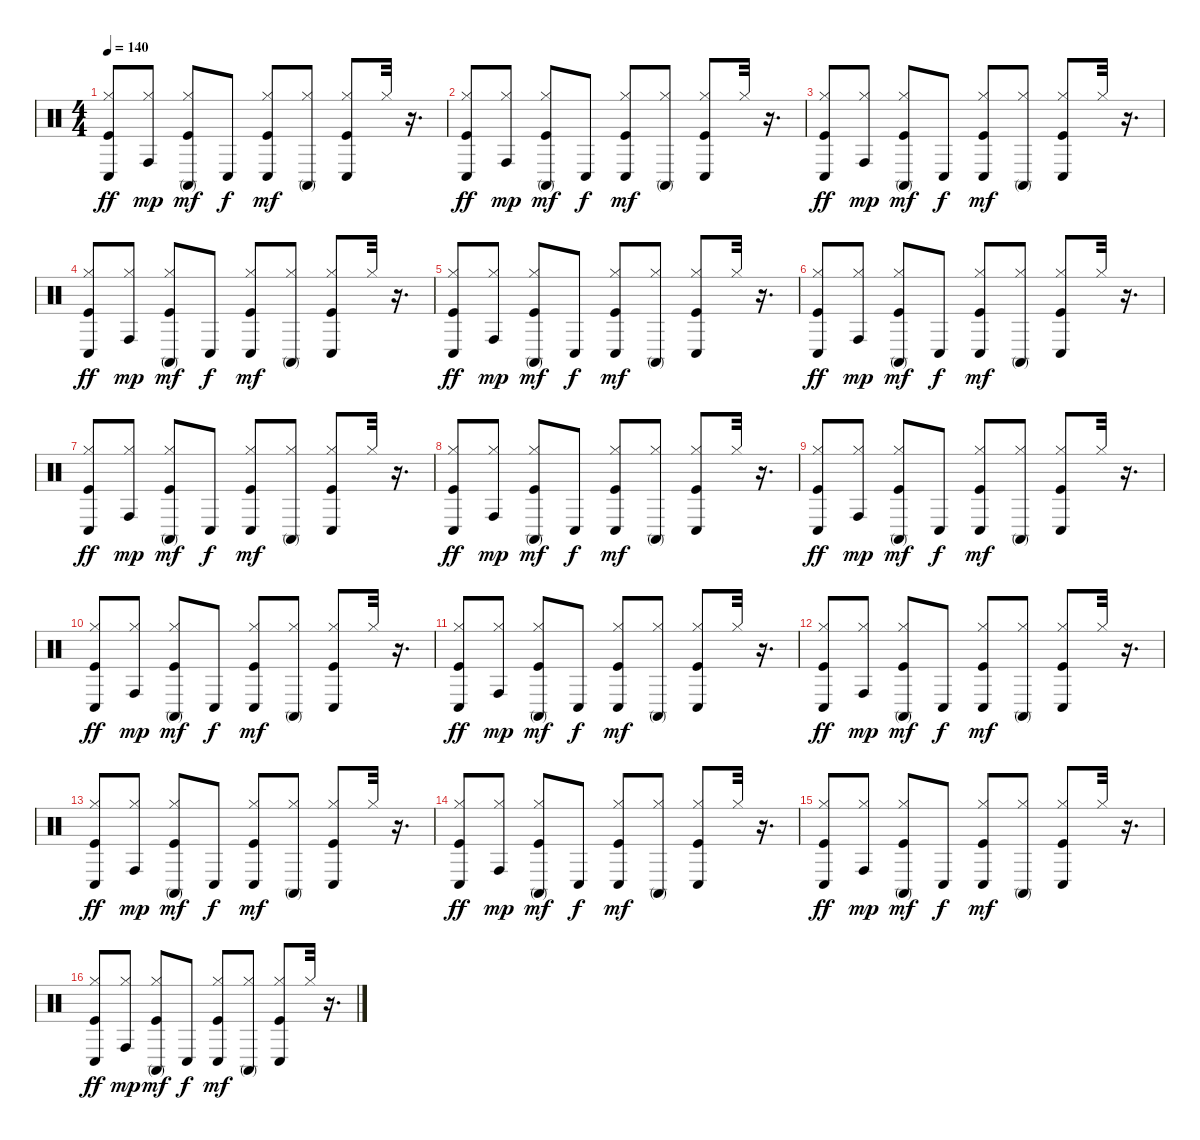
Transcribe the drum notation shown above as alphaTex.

\track "" {instrument percussion}
\staff {score}
\articulation defaults
\ts (4 4)
\tempo 140
\clef neutral
\ks c
("Kick (hit)" "Hi-Hat (closed)" "Conga low (hit)").8{dy ff} ("Hi-Hat (closed)" "Conga high (hit)").8{dy mp} ("Kick (hit)" "Hi-Hat (closed)" "Conga high (mute)").8{dy mf} "Conga low (hit)".8{dy f} ("Kick (hit)" "Hi-Hat (closed)" "Conga low (hit)").8{dy mf} ("Hi-Hat (closed)" "Conga high (mute)").8 ("Kick (hit)" "Hi-Hat (closed)" "Conga low (hit)").8 "Hi-Hat (closed)".32 r.16{d} |
("Kick (hit)" "Hi-Hat (closed)" "Conga low (hit)").8{dy ff} ("Hi-Hat (closed)" "Conga high (hit)").8{dy mp} ("Kick (hit)" "Hi-Hat (closed)" "Conga high (mute)").8{dy mf} "Conga low (hit)".8{dy f} ("Kick (hit)" "Hi-Hat (closed)" "Conga low (hit)").8{dy mf} ("Hi-Hat (closed)" "Conga high (mute)").8 ("Kick (hit)" "Hi-Hat (closed)" "Conga low (hit)").8 "Hi-Hat (closed)".32 r.16{d} |
("Kick (hit)" "Hi-Hat (closed)" "Conga low (hit)").8{dy ff} ("Hi-Hat (closed)" "Conga high (hit)").8{dy mp} ("Kick (hit)" "Hi-Hat (closed)" "Conga high (mute)").8{dy mf} "Conga low (hit)".8{dy f} ("Kick (hit)" "Hi-Hat (closed)" "Conga low (hit)").8{dy mf} ("Hi-Hat (closed)" "Conga high (mute)").8 ("Kick (hit)" "Hi-Hat (closed)" "Conga low (hit)").8 "Hi-Hat (closed)".32 r.16{d} |
("Kick (hit)" "Hi-Hat (closed)" "Conga low (hit)").8{dy ff} ("Hi-Hat (closed)" "Conga high (hit)").8{dy mp} ("Kick (hit)" "Hi-Hat (closed)" "Conga high (mute)").8{dy mf} "Conga low (hit)".8{dy f} ("Kick (hit)" "Hi-Hat (closed)" "Conga low (hit)").8{dy mf} ("Hi-Hat (closed)" "Conga high (mute)").8 ("Kick (hit)" "Hi-Hat (closed)" "Conga low (hit)").8 "Hi-Hat (closed)".32 r.16{d} |
("Kick (hit)" "Hi-Hat (closed)" "Conga low (hit)").8{dy ff} ("Hi-Hat (closed)" "Conga high (hit)").8{dy mp} ("Kick (hit)" "Hi-Hat (closed)" "Conga high (mute)").8{dy mf} "Conga low (hit)".8{dy f} ("Kick (hit)" "Hi-Hat (closed)" "Conga low (hit)").8{dy mf} ("Hi-Hat (closed)" "Conga high (mute)").8 ("Kick (hit)" "Hi-Hat (closed)" "Conga low (hit)").8 "Hi-Hat (closed)".32 r.16{d} |
("Kick (hit)" "Hi-Hat (closed)" "Conga low (hit)").8{dy ff} ("Hi-Hat (closed)" "Conga high (hit)").8{dy mp} ("Kick (hit)" "Hi-Hat (closed)" "Conga high (mute)").8{dy mf} "Conga low (hit)".8{dy f} ("Kick (hit)" "Hi-Hat (closed)" "Conga low (hit)").8{dy mf} ("Hi-Hat (closed)" "Conga high (mute)").8 ("Kick (hit)" "Hi-Hat (closed)" "Conga low (hit)").8 "Hi-Hat (closed)".32 r.16{d} |
("Kick (hit)" "Hi-Hat (closed)" "Conga low (hit)").8{dy ff} ("Hi-Hat (closed)" "Conga high (hit)").8{dy mp} ("Kick (hit)" "Hi-Hat (closed)" "Conga high (mute)").8{dy mf} "Conga low (hit)".8{dy f} ("Kick (hit)" "Hi-Hat (closed)" "Conga low (hit)").8{dy mf} ("Hi-Hat (closed)" "Conga high (mute)").8 ("Kick (hit)" "Hi-Hat (closed)" "Conga low (hit)").8 "Hi-Hat (closed)".32 r.16{d} |
("Kick (hit)" "Hi-Hat (closed)" "Conga low (hit)").8{dy ff} ("Hi-Hat (closed)" "Conga high (hit)").8{dy mp} ("Kick (hit)" "Hi-Hat (closed)" "Conga high (mute)").8{dy mf} "Conga low (hit)".8{dy f} ("Kick (hit)" "Hi-Hat (closed)" "Conga low (hit)").8{dy mf} ("Hi-Hat (closed)" "Conga high (mute)").8 ("Kick (hit)" "Hi-Hat (closed)" "Conga low (hit)").8 "Hi-Hat (closed)".32 r.16{d} |
("Kick (hit)" "Hi-Hat (closed)" "Conga low (hit)").8{dy ff} ("Hi-Hat (closed)" "Conga high (hit)").8{dy mp} ("Kick (hit)" "Hi-Hat (closed)" "Conga high (mute)").8{dy mf} "Conga low (hit)".8{dy f} ("Kick (hit)" "Hi-Hat (closed)" "Conga low (hit)").8{dy mf} ("Hi-Hat (closed)" "Conga high (mute)").8 ("Kick (hit)" "Hi-Hat (closed)" "Conga low (hit)").8 "Hi-Hat (closed)".32 r.16{d} |
("Kick (hit)" "Hi-Hat (closed)" "Conga low (hit)").8{dy ff} ("Hi-Hat (closed)" "Conga high (hit)").8{dy mp} ("Kick (hit)" "Hi-Hat (closed)" "Conga high (mute)").8{dy mf} "Conga low (hit)".8{dy f} ("Kick (hit)" "Hi-Hat (closed)" "Conga low (hit)").8{dy mf} ("Hi-Hat (closed)" "Conga high (mute)").8 ("Kick (hit)" "Hi-Hat (closed)" "Conga low (hit)").8 "Hi-Hat (closed)".32 r.16{d} |
("Kick (hit)" "Hi-Hat (closed)" "Conga low (hit)").8{dy ff} ("Hi-Hat (closed)" "Conga high (hit)").8{dy mp} ("Kick (hit)" "Hi-Hat (closed)" "Conga high (mute)").8{dy mf} "Conga low (hit)".8{dy f} ("Kick (hit)" "Hi-Hat (closed)" "Conga low (hit)").8{dy mf} ("Hi-Hat (closed)" "Conga high (mute)").8 ("Kick (hit)" "Hi-Hat (closed)" "Conga low (hit)").8 "Hi-Hat (closed)".32 r.16{d} |
("Kick (hit)" "Hi-Hat (closed)" "Conga low (hit)").8{dy ff} ("Hi-Hat (closed)" "Conga high (hit)").8{dy mp} ("Kick (hit)" "Hi-Hat (closed)" "Conga high (mute)").8{dy mf} "Conga low (hit)".8{dy f} ("Kick (hit)" "Hi-Hat (closed)" "Conga low (hit)").8{dy mf} ("Hi-Hat (closed)" "Conga high (mute)").8 ("Kick (hit)" "Hi-Hat (closed)" "Conga low (hit)").8 "Hi-Hat (closed)".32 r.16{d} |
("Kick (hit)" "Hi-Hat (closed)" "Conga low (hit)").8{dy ff} ("Hi-Hat (closed)" "Conga high (hit)").8{dy mp} ("Kick (hit)" "Hi-Hat (closed)" "Conga high (mute)").8{dy mf} "Conga low (hit)".8{dy f} ("Kick (hit)" "Hi-Hat (closed)" "Conga low (hit)").8{dy mf} ("Hi-Hat (closed)" "Conga high (mute)").8 ("Kick (hit)" "Hi-Hat (closed)" "Conga low (hit)").8 "Hi-Hat (closed)".32 r.16{d} |
("Kick (hit)" "Hi-Hat (closed)" "Conga low (hit)").8{dy ff} ("Hi-Hat (closed)" "Conga high (hit)").8{dy mp} ("Kick (hit)" "Hi-Hat (closed)" "Conga high (mute)").8{dy mf} "Conga low (hit)".8{dy f} ("Kick (hit)" "Hi-Hat (closed)" "Conga low (hit)").8{dy mf} ("Hi-Hat (closed)" "Conga high (mute)").8 ("Kick (hit)" "Hi-Hat (closed)" "Conga low (hit)").8 "Hi-Hat (closed)".32 r.16{d} |
("Kick (hit)" "Hi-Hat (closed)" "Conga low (hit)").8{dy ff} ("Hi-Hat (closed)" "Conga high (hit)").8{dy mp} ("Kick (hit)" "Hi-Hat (closed)" "Conga high (mute)").8{dy mf} "Conga low (hit)".8{dy f} ("Kick (hit)" "Hi-Hat (closed)" "Conga low (hit)").8{dy mf} ("Hi-Hat (closed)" "Conga high (mute)").8 ("Kick (hit)" "Hi-Hat (closed)" "Conga low (hit)").8 "Hi-Hat (closed)".32 r.16{d} |
("Kick (hit)" "Hi-Hat (closed)" "Conga low (hit)").8{dy ff} ("Hi-Hat (closed)" "Conga high (hit)").8{dy mp} ("Kick (hit)" "Hi-Hat (closed)" "Conga high (mute)").8{dy mf} "Conga low (hit)".8{dy f} ("Kick (hit)" "Hi-Hat (closed)" "Conga low (hit)").8{dy mf} ("Hi-Hat (closed)" "Conga high (mute)").8 ("Kick (hit)" "Hi-Hat (closed)" "Conga low (hit)").8 "Hi-Hat (closed)".32 r.16{d}
